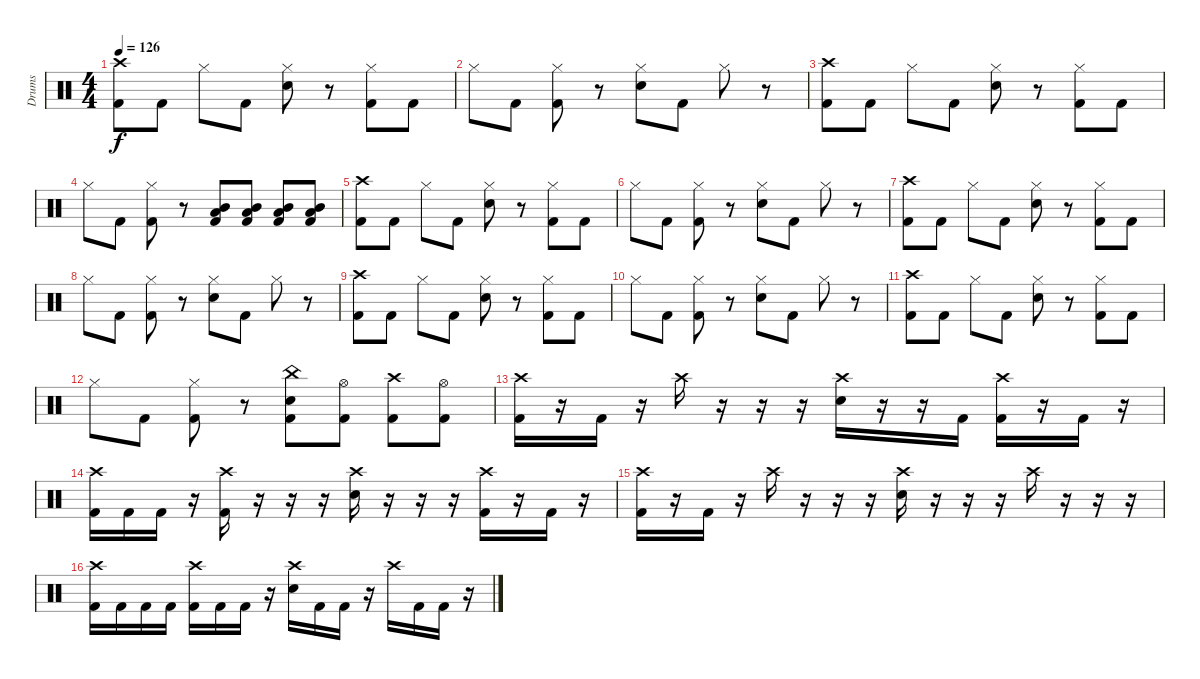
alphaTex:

\track ("Drums" "Drums") {instrument percussion}
\staff {score}
\articulation defaults
\ts (4 4)
\tempo 126
\clef neutral
\ks c
("Crash high (hit)" "Kick (hit) 2").8{dy f} "Kick (hit) 2".8 "Hi-Hat (closed)".8 "Kick (hit) 2".8 ("Hi-Hat (closed)" "Electric Snare (hit)").8 r.8 ("Hi-Hat (closed)" "Kick (hit) 2").8 "Kick (hit) 2".8 |
"Hi-Hat (closed)".8 "Kick (hit) 2".8 ("Hi-Hat (closed)" "Kick (hit) 2").8 r.8 ("Hi-Hat (closed)" "Electric Snare (hit)").8 "Kick (hit) 2".8 "Hi-Hat (closed)".8 r.8 |
("Crash high (hit)" "Kick (hit) 2").8 "Kick (hit) 2".8 "Hi-Hat (closed)".8 "Kick (hit) 2".8 ("Hi-Hat (closed)" "Electric Snare (hit)").8 r.8 ("Hi-Hat (closed)" "Kick (hit) 2").8 "Kick (hit) 2".8 |
"Hi-Hat (closed)".8 "Kick (hit) 2".8 ("Hi-Hat (closed)" "Kick (hit) 2").8 r.8 ("Low Floor Tom (hit)" "Mid Tom (hit)" "Kick (hit) 2").8 ("Low Floor Tom (hit)" "Mid Tom (hit)" "Kick (hit) 2").8 ("Low Floor Tom (hit)" "Mid Tom (hit)" "Kick (hit) 2").8 ("Low Floor Tom (hit)" "Mid Tom (hit)" "Kick (hit) 2").8 |
("Crash high (hit)" "Kick (hit) 2").8 "Kick (hit) 2".8 "Hi-Hat (closed)".8 "Kick (hit) 2".8 ("Hi-Hat (closed)" "Electric Snare (hit)").8 r.8 ("Hi-Hat (closed)" "Kick (hit) 2").8 "Kick (hit) 2".8 |
"Hi-Hat (closed)".8 "Kick (hit) 2".8 ("Hi-Hat (closed)" "Kick (hit) 2").8 r.8 ("Hi-Hat (closed)" "Electric Snare (hit)").8 "Kick (hit) 2".8 "Hi-Hat (closed)".8 r.8 |
("Crash high (hit)" "Kick (hit) 2").8 "Kick (hit) 2".8 "Hi-Hat (closed)".8 "Kick (hit) 2".8 ("Hi-Hat (closed)" "Electric Snare (hit)").8 r.8 ("Hi-Hat (closed)" "Kick (hit) 2").8 "Kick (hit) 2".8 |
"Hi-Hat (closed)".8 "Kick (hit) 2".8 ("Hi-Hat (closed)" "Kick (hit) 2").8 r.8 ("Hi-Hat (closed)" "Electric Snare (hit)").8 "Kick (hit) 2".8 "Hi-Hat (closed)".8 r.8 |
("Crash high (hit)" "Kick (hit) 2").8 "Kick (hit) 2".8 "Hi-Hat (closed)".8 "Kick (hit) 2".8 ("Hi-Hat (closed)" "Electric Snare (hit)").8 r.8 ("Hi-Hat (closed)" "Kick (hit) 2").8 "Kick (hit) 2".8 |
"Hi-Hat (closed)".8 "Kick (hit) 2".8 ("Hi-Hat (closed)" "Kick (hit) 2").8 r.8 ("Hi-Hat (closed)" "Electric Snare (hit)").8 "Kick (hit) 2".8 "Hi-Hat (closed)".8 r.8 |
("Crash high (hit)" "Kick (hit) 2").8 "Kick (hit) 2".8 "Hi-Hat (closed)".8 "Kick (hit) 2".8 ("Hi-Hat (closed)" "Electric Snare (hit)").8 r.8 ("Hi-Hat (closed)" "Kick (hit) 2").8 "Kick (hit) 2".8 |
"Hi-Hat (closed)".8 "Kick (hit) 2".8 ("Hi-Hat (closed)" "Kick (hit) 2").8 r.8 ("China (hit)" "Electric Snare (hit)" "Kick (hit) 2").8 ("Hi-Hat (open)" "Kick (hit) 2").8 ("Crash high (hit)" "Kick (hit) 2").8 ("Hi-Hat (open)" "Kick (hit) 2").8 |
("Crash high (hit)" "Kick (hit) 2").16 r.16 "Kick (hit) 2".16 r.16 "Crash high (hit)".16 r.16 r.16 r.16 ("Crash high (hit)" "Electric Snare (hit)").16 r.16 r.16 "Kick (hit) 2".16 ("Crash high (hit)" "Kick (hit) 2").16 r.16 "Kick (hit) 2".16 r.16 |
("Crash high (hit)" "Kick (hit) 2").16 "Kick (hit) 2".16 "Kick (hit) 2".16 r.16 ("Crash high (hit)" "Kick (hit) 2").16 r.16 r.16 r.16 ("Crash high (hit)" "Electric Snare (hit)").16 r.16 r.16 r.16 ("Crash high (hit)" "Kick (hit) 2").16 r.16 "Kick (hit) 2".16 r.16 |
("Crash high (hit)" "Kick (hit) 2").16 r.16 "Kick (hit) 2".16 r.16 "Crash high (hit)".16 r.16 r.16 r.16 ("Crash high (hit)" "Electric Snare (hit)").16 r.16 r.16 r.16 "Crash high (hit)".16 r.16 r.16 r.16 |
("Crash high (hit)" "Kick (hit) 2").16 "Kick (hit) 2".16 "Kick (hit) 2".16 "Kick (hit) 2".16 ("Crash high (hit)" "Kick (hit) 2").16 "Kick (hit) 2".16 "Kick (hit) 2".16 r.16 ("Crash high (hit)" "Electric Snare (hit)").16 "Kick (hit) 2".16 "Kick (hit) 2".16 r.16 "Crash high (hit)".16 "Kick (hit) 2".16 "Kick (hit) 2".16 r.16
